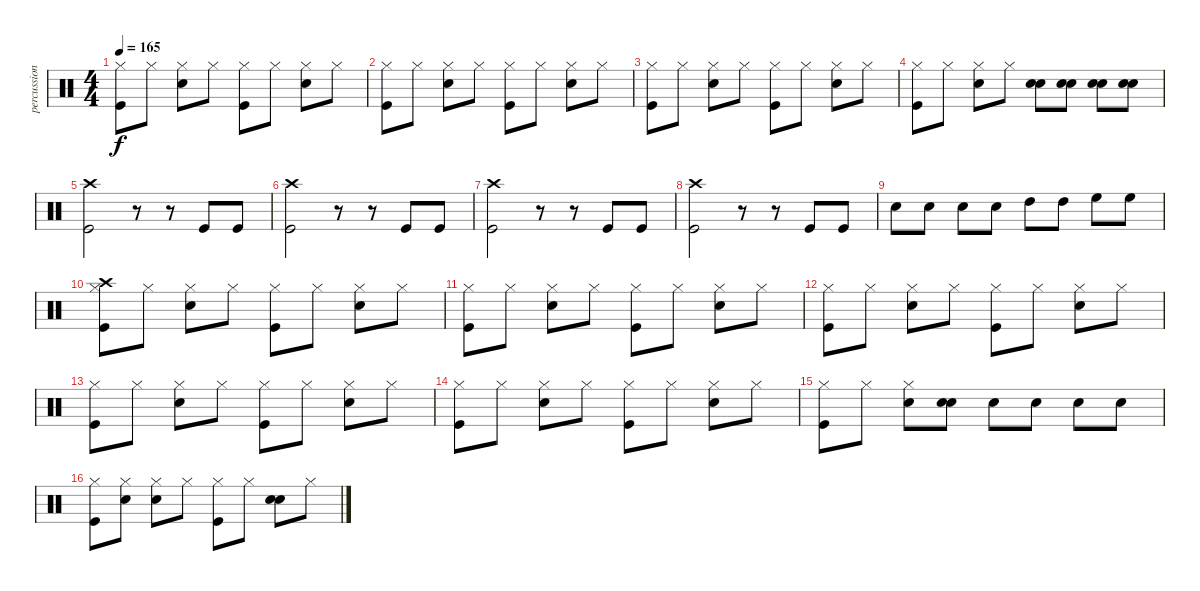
\track ("percussion" "percussion") {instrument percussion}
\staff {score}
\articulation defaults
\ts (4 4)
\tempo 165
\clef neutral
\ks c
("Kick (hit)" "Hi-Hat (closed)").8{dy f} "Hi-Hat (closed)".8 ("Electric Snare (hit)" "Hi-Hat (closed)").8 "Hi-Hat (closed)".8 ("Kick (hit)" "Hi-Hat (closed)").8 "Hi-Hat (closed)".8 ("Electric Snare (hit)" "Hi-Hat (closed)").8 "Hi-Hat (closed)".8 |
("Kick (hit)" "Hi-Hat (closed)").8 "Hi-Hat (closed)".8 ("Electric Snare (hit)" "Hi-Hat (closed)").8 "Hi-Hat (closed)".8 ("Kick (hit)" "Hi-Hat (closed)").8 "Hi-Hat (closed)".8 ("Electric Snare (hit)" "Hi-Hat (closed)").8 "Hi-Hat (closed)".8 |
("Kick (hit)" "Hi-Hat (closed)").8 "Hi-Hat (closed)".8 ("Electric Snare (hit)" "Hi-Hat (closed)").8 "Hi-Hat (closed)".8 ("Kick (hit)" "Hi-Hat (closed)").8 "Hi-Hat (closed)".8 ("Electric Snare (hit)" "Hi-Hat (closed)").8 "Hi-Hat (closed)".8 |
("Kick (hit)" "Hi-Hat (closed)").8 "Hi-Hat (closed)".8 ("Electric Snare (hit)" "Hi-Hat (closed)").8 "Hi-Hat (closed)".8 ("Electric Snare (hit)" "Electric Snare (hit)").8 ("Electric Snare (hit)" "Electric Snare (hit)").8 ("Electric Snare (hit)" "Electric Snare (hit)").8 ("Electric Snare (hit)" "Electric Snare (hit)").8 |
("Crash high (hit)" "Kick (hit)").2 r.8 r.8 "Kick (hit)".8 "Kick (hit)".8 |
("Crash high (hit)" "Kick (hit)").2 r.8 r.8 "Kick (hit)".8 "Kick (hit)".8 |
("Crash high (hit)" "Kick (hit)").2 r.8 r.8 "Kick (hit)".8 "Kick (hit)".8 |
("Kick (hit)" "Crash high (hit)").2 r.8 r.8 "Kick (hit)".8 "Kick (hit)".8 |
"Electric Snare (hit)".8 "Electric Snare (hit)".8 "Electric Snare (hit)".8 "Electric Snare (hit)".8 "High Tom (hit)".8 "High Tom (hit)".8 "High Floor Tom (hit)".8 "High Floor Tom (hit)".8 |
("Crash high (hit)" "Kick (hit)" "Hi-Hat (closed)").8 "Hi-Hat (closed)".8 ("Electric Snare (hit)" "Hi-Hat (closed)").8 "Hi-Hat (closed)".8 ("Kick (hit)" "Hi-Hat (closed)").8 "Hi-Hat (closed)".8 ("Electric Snare (hit)" "Hi-Hat (closed)").8 "Hi-Hat (closed)".8 |
("Kick (hit)" "Hi-Hat (closed)").8 "Hi-Hat (closed)".8 ("Electric Snare (hit)" "Hi-Hat (closed)").8 "Hi-Hat (closed)".8 ("Kick (hit)" "Hi-Hat (closed)").8 "Hi-Hat (closed)".8 ("Electric Snare (hit)" "Hi-Hat (closed)").8 "Hi-Hat (closed)".8 |
("Kick (hit)" "Hi-Hat (closed)").8 "Hi-Hat (closed)".8 ("Electric Snare (hit)" "Hi-Hat (closed)").8 "Hi-Hat (closed)".8 ("Kick (hit)" "Hi-Hat (closed)").8 "Hi-Hat (closed)".8 ("Electric Snare (hit)" "Hi-Hat (closed)").8 "Hi-Hat (closed)".8 |
("Kick (hit)" "Hi-Hat (closed)").8 "Hi-Hat (closed)".8 ("Electric Snare (hit)" "Hi-Hat (closed)").8 "Hi-Hat (closed)".8 ("Kick (hit)" "Hi-Hat (closed)").8 "Hi-Hat (closed)".8 ("Electric Snare (hit)" "Hi-Hat (closed)").8 "Hi-Hat (closed)".8 |
("Kick (hit)" "Hi-Hat (closed)").8 "Hi-Hat (closed)".8 ("Electric Snare (hit)" "Hi-Hat (closed)").8 "Hi-Hat (closed)".8 ("Kick (hit)" "Hi-Hat (closed)").8 "Hi-Hat (closed)".8 ("Electric Snare (hit)" "Hi-Hat (closed)").8 "Hi-Hat (closed)".8 |
("Kick (hit)" "Hi-Hat (closed)").8 "Hi-Hat (closed)".8 ("Electric Snare (hit)" "Hi-Hat (closed)").8 ("Electric Snare (hit)" "Electric Snare (hit)").8 "Electric Snare (hit)".8 "Electric Snare (hit)".8 "Electric Snare (hit)".8 "Electric Snare (hit)".8 |
("Kick (hit)" "Hi-Hat (closed)").8 ("Snare (hit)" "Hi-Hat (closed)").8 ("Electric Snare (hit)" "Hi-Hat (closed)").8 "Hi-Hat (closed)".8 ("Kick (hit)" "Hi-Hat (closed)").8 "Hi-Hat (closed)".8 ("Electric Snare (hit)" "Snare (hit)").8 "Hi-Hat (closed)".8
